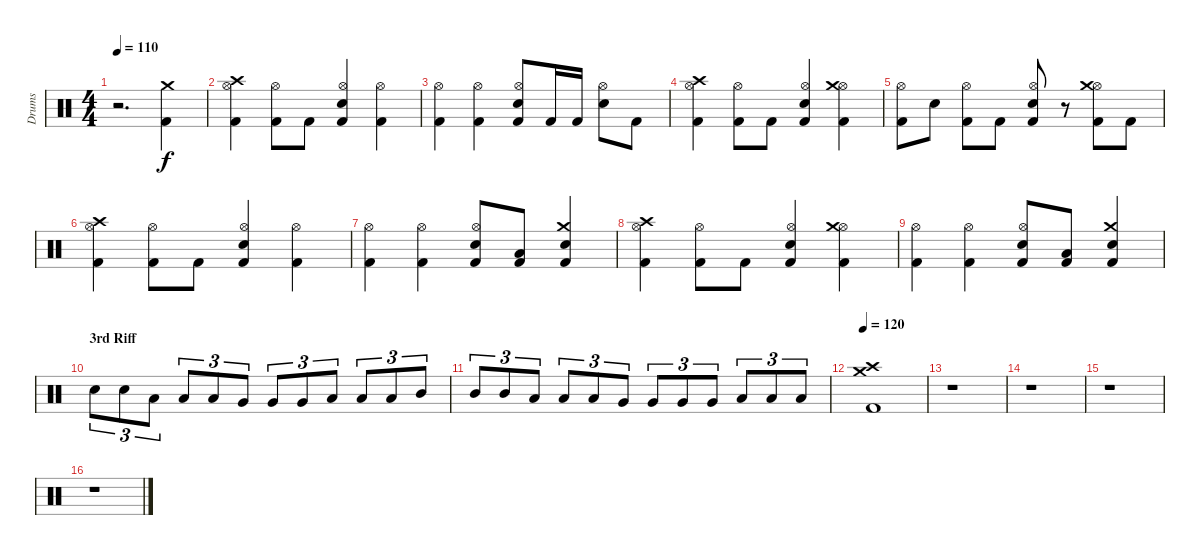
\track ("Drums" "Drums") {instrument percussion}
\staff {score}
\articulation defaults
\ts (4 4)
\tempo 110
\clef neutral
\ks c
r.2{d dy f} ("Kick (hit) 2" "Crash medium (hit)").4 |
("Hi-Hat (open)" "Kick (hit) 2" "Crash high (hit)").4 ("Hi-Hat (open)" "Kick (hit) 2").8 "Kick (hit) 2".8 ("Hi-Hat (open)" "Snare (hit) 2" "Kick (hit) 2").4 ("Hi-Hat (open)" "Kick (hit) 2").4 |
("Hi-Hat (open)" "Kick (hit) 2").4 ("Hi-Hat (open)" "Kick (hit) 2").4 ("Hi-Hat (open)" "Snare (hit) 2" "Kick (hit) 2").8 "Kick (hit) 2".16 "Kick (hit) 2".16 ("Hi-Hat (open)" "Snare (hit) 2").8 "Kick (hit) 2".8 |
("Hi-Hat (open)" "Kick (hit) 2" "Crash high (hit)").4 ("Hi-Hat (open)" "Kick (hit) 2").8 "Kick (hit) 2".8 ("Hi-Hat (open)" "Snare (hit) 2" "Kick (hit) 2").4 ("Hi-Hat (open)" "Kick (hit) 2" "Crash medium (hit)").4 |
("Hi-Hat (open)" "Kick (hit) 2").8 "Snare (hit) 2".8 ("Hi-Hat (open)" "Kick (hit) 2").8 "Kick (hit) 2".8 ("Hi-Hat (open)" "Snare (hit) 2" "Kick (hit) 2").8 r.8 ("Hi-Hat (open)" "Kick (hit) 2" "Crash medium (hit)").8 "Kick (hit) 2".8 |
("Hi-Hat (open)" "Kick (hit) 2" "Crash high (hit)").4 ("Hi-Hat (open)" "Kick (hit) 2").8 "Kick (hit) 2".8 ("Hi-Hat (open)" "Snare (hit) 2" "Kick (hit) 2").4 ("Hi-Hat (open)" "Kick (hit) 2").4 |
("Hi-Hat (open)" "Kick (hit) 2").4 ("Hi-Hat (open)" "Kick (hit) 2").4 ("Hi-Hat (open)" "Snare (hit) 2" "Kick (hit) 2").8 ("Kick (hit) 2" "Low Tom (hit)").8 ("Snare (hit) 2" "Kick (hit) 2" "Crash medium (hit)").4 |
("Hi-Hat (open)" "Kick (hit) 2" "Crash high (hit)").4 ("Hi-Hat (open)" "Kick (hit) 2").8 "Kick (hit) 2".8 ("Hi-Hat (open)" "Snare (hit) 2" "Kick (hit) 2").4 ("Hi-Hat (open)" "Kick (hit) 2" "Crash medium (hit)").4 |
("Hi-Hat (open)" "Kick (hit) 2").4 ("Hi-Hat (open)" "Kick (hit) 2").4 ("Hi-Hat (open)" "Snare (hit) 2" "Kick (hit) 2").8 ("Kick (hit) 2" "Low Tom (hit)").8 ("Snare (hit) 2" "Kick (hit) 2" "Crash medium (hit)").4 |
\section ("" "3rd Riff")
"Snare (hit) 2".8{tu (3 2)} "Snare (hit) 2".8{tu (3 2)} "Low Tom (hit)".8{tu (3 2)} "Low Tom (hit)".8{tu (3 2)} "Low Tom (hit)".8{tu (3 2)} "Very Low Tom (hit)".8{tu (3 2)} "Very Low Tom (hit)".8{tu (3 2)} "Very Low Tom (hit)".8{tu (3 2)} "Low Tom (hit)".8{tu (3 2)} "Low Tom (hit)".8{tu (3 2)} "Low Tom (hit)".8{tu (3 2)} "Mid Tom (hit)".8{tu (3 2)} |
"Mid Tom (hit)".8{tu (3 2)} "Mid Tom (hit)".8{tu (3 2)} "Low Tom (hit)".8{tu (3 2)} "Low Tom (hit)".8{tu (3 2)} "Low Tom (hit)".8{tu (3 2)} "Very Low Tom (hit)".8{tu (3 2)} "Very Low Tom (hit)".8{tu (3 2)} "Very Low Tom (hit)".8{tu (3 2)} "Very Low Tom (hit)".8{tu (3 2)} "Low Floor Tom (hit)".8{tu (3 2)} "Low Floor Tom (hit)".8{tu (3 2)} "Low Floor Tom (hit)".8{tu (3 2)} |
\tempo 120
("Kick (hit) 2" "Crash medium (hit)" "Crash high (hit)").1 |
r.1 |
r.1 |
r.1 |
r.1
